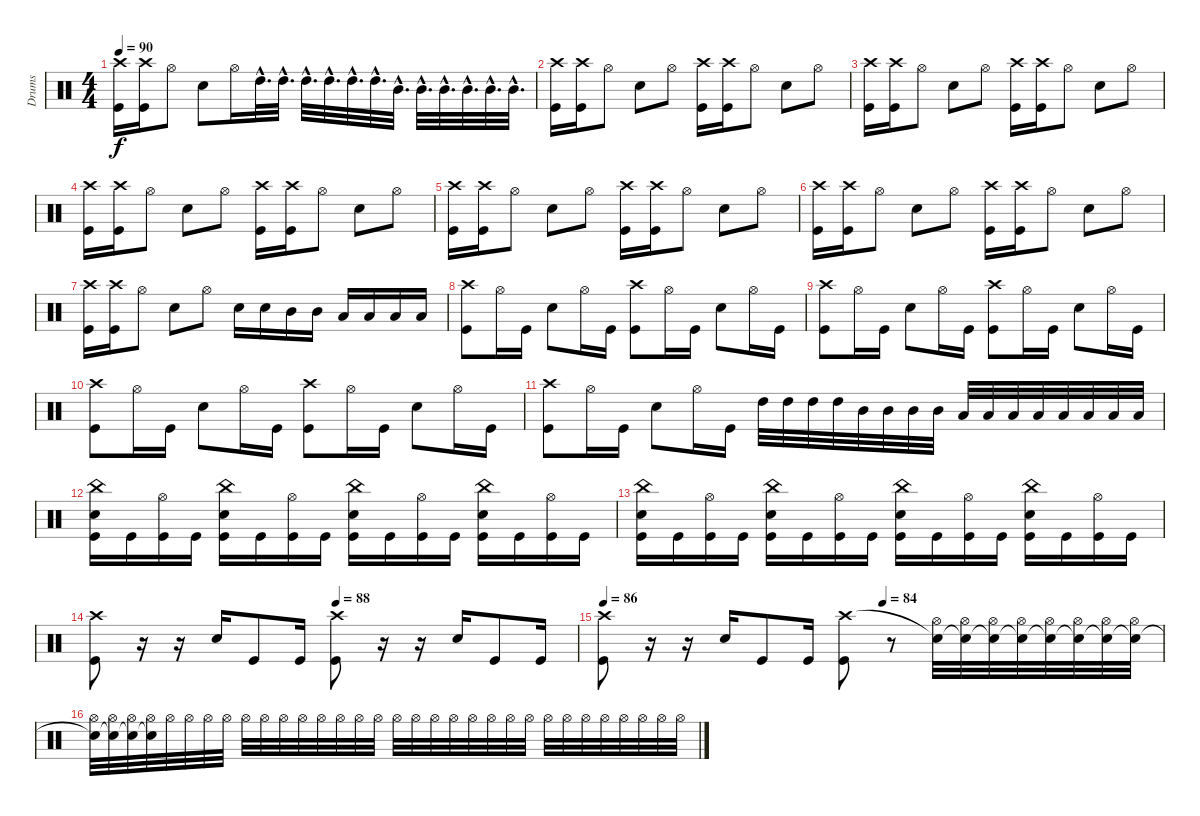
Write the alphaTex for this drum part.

\track ("Drums" "Drums") {instrument percussion}
\staff {score}
\articulation defaults
\ts (4 4)
\tempo 90
\clef neutral
\ks c
("Kick (hit)" "Crash high (hit)").16{dy f} ("Kick (hit)" "Crash high (hit)").16 "Hi-Hat (open)".8 "Snare (hit) 2".8 "Hi-Hat (open)".16 "High Tom (hit)"{hac}.32{d} "High Tom (hit)"{hac}.32{d} "High Tom (hit)"{hac}.32{d} "High Tom (hit)"{hac}.32{d} "High Tom (hit)"{hac}.32{d} "High Tom (hit)"{hac}.32{d} "Mid Tom (hit)"{hac}.32{d} "Mid Tom (hit)"{hac}.32{d} "Mid Tom (hit)"{hac}.32{d} "Mid Tom (hit)"{hac}.32{d} "Mid Tom (hit)"{hac}.32{d} "Mid Tom (hit)"{hac}.32{d} |
("Kick (hit)" "Crash high (hit)").16 ("Kick (hit)" "Crash high (hit)").16 "Hi-Hat (open)".8 "Snare (hit) 2".8 "Hi-Hat (open)".8 ("Kick (hit)" "Crash high (hit)").16 ("Kick (hit)" "Crash high (hit)").16 "Hi-Hat (open)".8 "Snare (hit) 2".8 "Hi-Hat (open)".8 |
("Kick (hit)" "Crash high (hit)").16 ("Kick (hit)" "Crash high (hit)").16 "Hi-Hat (open)".8 "Snare (hit) 2".8 "Hi-Hat (open)".8 ("Kick (hit)" "Crash high (hit)").16 ("Kick (hit)" "Crash high (hit)").16 "Hi-Hat (open)".8 "Snare (hit) 2".8 "Hi-Hat (open)".8 |
("Kick (hit)" "Crash high (hit)").16 ("Kick (hit)" "Crash high (hit)").16 "Hi-Hat (open)".8 "Snare (hit) 2".8 "Hi-Hat (open)".8 ("Kick (hit)" "Crash high (hit)").16 ("Kick (hit)" "Crash high (hit)").16 "Hi-Hat (open)".8 "Snare (hit) 2".8 "Hi-Hat (open)".8 |
("Kick (hit)" "Crash high (hit)").16 ("Kick (hit)" "Crash high (hit)").16 "Hi-Hat (open)".8 "Snare (hit) 2".8 "Hi-Hat (open)".8 ("Kick (hit)" "Crash high (hit)").16 ("Kick (hit)" "Crash high (hit)").16 "Hi-Hat (open)".8 "Snare (hit) 2".8 "Hi-Hat (open)".8 |
("Kick (hit)" "Crash high (hit)").16 ("Kick (hit)" "Crash high (hit)").16 "Hi-Hat (open)".8 "Snare (hit) 2".8 "Hi-Hat (open)".8 ("Kick (hit)" "Crash high (hit)").16 ("Kick (hit)" "Crash high (hit)").16 "Hi-Hat (open)".8 "Snare (hit) 2".8 "Hi-Hat (open)".8 |
("Kick (hit)" "Crash high (hit)").16 ("Kick (hit)" "Crash high (hit)").16 "Hi-Hat (open)".8 "Snare (hit) 2".8 "Hi-Hat (open)".8 "Snare (hit) 2".16 "Snare (hit) 2".16 "Mid Tom (hit)".16 "Mid Tom (hit)".16 "Low Tom (hit)".16 "Low Tom (hit)".16 "Low Floor Tom (hit)".16 "Low Floor Tom (hit)".16 |
("Kick (hit)" "Crash high (hit)").8 "Hi-Hat (open)".16 "Kick (hit)".16 "Snare (hit) 2".8 "Hi-Hat (open)".16 "Kick (hit)".16 ("Kick (hit)" "Crash high (hit)").8 "Hi-Hat (open)".16 "Kick (hit)".16 "Snare (hit) 2".8 "Hi-Hat (open)".16 "Kick (hit)".16 |
("Kick (hit)" "Crash high (hit)").8 "Hi-Hat (open)".16 "Kick (hit)".16 "Snare (hit) 2".8 "Hi-Hat (open)".16 "Kick (hit)".16 ("Kick (hit)" "Crash high (hit)").8 "Hi-Hat (open)".16 "Kick (hit)".16 "Snare (hit) 2".8 "Hi-Hat (open)".16 "Kick (hit)".16 |
("Kick (hit)" "Crash high (hit)").8 "Hi-Hat (open)".16 "Kick (hit)".16 "Snare (hit) 2".8 "Hi-Hat (open)".16 "Kick (hit)".16 ("Kick (hit)" "Crash high (hit)").8 "Hi-Hat (open)".16 "Kick (hit)".16 "Snare (hit) 2".8 "Hi-Hat (open)".16 "Kick (hit)".16 |
("Kick (hit)" "Crash high (hit)").8 "Hi-Hat (open)".16 "Kick (hit)".16 "Snare (hit) 2".8 "Hi-Hat (open)".16 "Kick (hit)".16 "High Tom (hit)".32 "High Tom (hit)".32 "High Tom (hit)".32 "High Tom (hit)".32 "Mid Tom (hit)".32 "Mid Tom (hit)".32 "Mid Tom (hit)".32 "Mid Tom (hit)".32 "Low Tom (hit)".32 "Low Tom (hit)".32 "Low Tom (hit)".32 "Low Tom (hit)".32 "Low Floor Tom (hit)".32 "Low Floor Tom (hit)".32 "Low Floor Tom (hit)".32 "Low Floor Tom (hit)".32 |
("Snare (hit) 2" "Kick (hit)" "China (hit)").16 "Kick (hit)".16 ("Kick (hit)" "Hi-Hat (open)").16 "Kick (hit)".16 ("Snare (hit) 2" "Kick (hit)" "China (hit)").16 "Kick (hit)".16 ("Kick (hit)" "Hi-Hat (open)").16 "Kick (hit)".16 ("Snare (hit) 2" "Kick (hit)" "China (hit)").16 "Kick (hit)".16 ("Kick (hit)" "Hi-Hat (open)").16 "Kick (hit)".16 ("Snare (hit) 2" "Kick (hit)" "China (hit)").16 "Kick (hit)".16 ("Kick (hit)" "Hi-Hat (open)").16 "Kick (hit)".16 |
("Snare (hit) 2" "Kick (hit)" "China (hit)").16 "Kick (hit)".16 ("Kick (hit)" "Hi-Hat (open)").16 "Kick (hit)".16 ("Snare (hit) 2" "Kick (hit)" "China (hit)").16 "Kick (hit)".16 ("Kick (hit)" "Hi-Hat (open)").16 "Kick (hit)".16 ("Snare (hit) 2" "Kick (hit)" "China (hit)").16 "Kick (hit)".16 ("Kick (hit)" "Hi-Hat (open)").16 "Kick (hit)".16 ("Snare (hit) 2" "Kick (hit)" "China (hit)").16 "Kick (hit)".16 ("Kick (hit)" "Hi-Hat (open)").16 "Kick (hit)".16 |
\tempo (88 0.5)
("Kick (hit)" "Crash high (hit)").8 r.16 r.16 "Snare (hit) 2".16 "Kick (hit)".8 "Kick (hit)".16 ("Kick (hit)" "Crash high (hit)").8 r.16 r.16 "Snare (hit) 2".16 "Kick (hit)".8 "Kick (hit)".16 |
\tempo 86
\tempo (84 0.5)
("Kick (hit)" "Crash high (hit)").8 r.16 r.16 "Snare (hit) 2".16 "Kick (hit)".8 "Kick (hit)".16 ("Kick (hit)" "Crash high (hit)").8 r.8 ("Hi-Hat (open)" "Snare (hit)"{t}).32{volume 6} ("Hi-Hat (open)" "Snare (hit)"{t}).32{volume 16} ("Hi-Hat (open)" "Snare (hit)"{t}).32 ("Hi-Hat (open)" "Snare (hit)"{t}).32 ("Hi-Hat (open)" "Snare (hit)"{t}).32 ("Hi-Hat (open)" "Snare (hit)"{t}).32 ("Hi-Hat (open)" "Snare (hit)"{t}).32 ("Hi-Hat (open)" "Snare (hit)"{t}).32 |
("Hi-Hat (open)" "Snare (hit)"{t}).32 ("Hi-Hat (open)" "Snare (hit)"{t}).32 ("Hi-Hat (open)" "Snare (hit)"{t}).32 ("Hi-Hat (open)" "Snare (hit)"{t}).32 "Hi-Hat (open)".32 "Hi-Hat (open)".32 "Hi-Hat (open)".32 "Hi-Hat (open)".32 "Hi-Hat (open)".32 "Hi-Hat (open)".32 "Hi-Hat (open)".32 "Hi-Hat (open)".32 "Hi-Hat (open)".32 "Hi-Hat (open)".32 "Hi-Hat (open)".32 "Hi-Hat (open)".32 "Hi-Hat (open)".32 "Hi-Hat (open)".32 "Hi-Hat (open)".32 "Hi-Hat (open)".32 "Hi-Hat (open)".32 "Hi-Hat (open)".32 "Hi-Hat (open)".32 "Hi-Hat (open)".32 "Hi-Hat (open)".32 "Hi-Hat (open)".32 "Hi-Hat (open)".32 "Hi-Hat (open)".32 "Hi-Hat (open)".32 "Hi-Hat (open)".32 "Hi-Hat (open)".32 "Hi-Hat (open)".32
